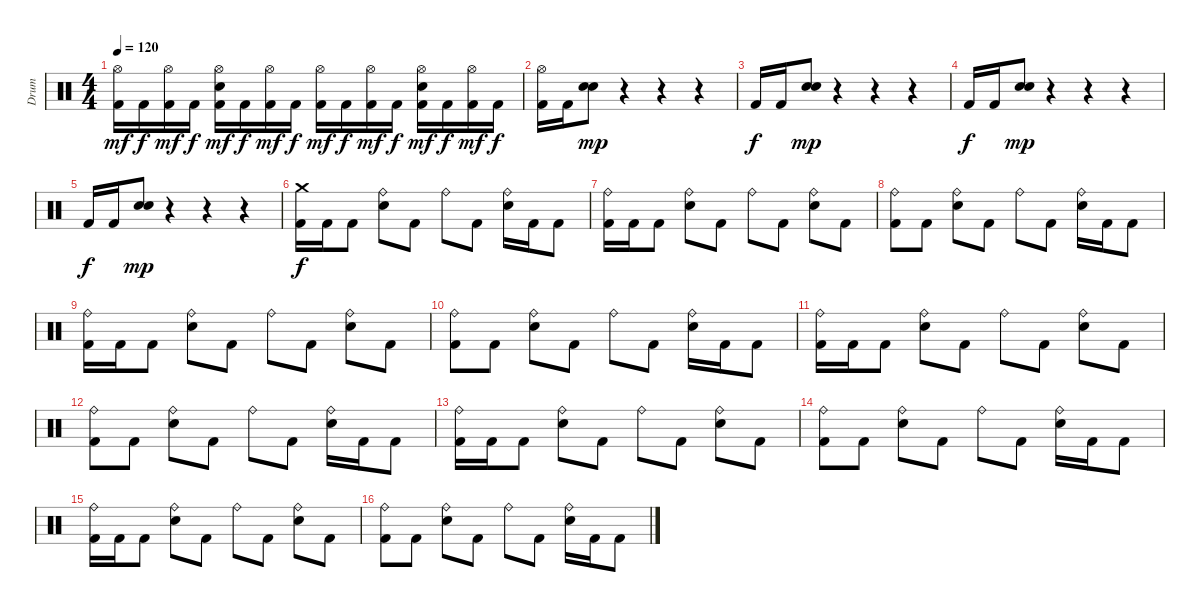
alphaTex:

\track ("Drum" "Drum") {instrument percussion}
\staff {score}
\articulation defaults
\ts (4 4)
\tempo 120
\clef neutral
\ks c
("Hi-Hat (open)" "Kick (hit) 2").16{dy mf} "Kick (hit) 2".16{dy f} ("Hi-Hat (open)" "Kick (hit) 2").16{dy mf} "Kick (hit) 2".16{dy f} ("Hi-Hat (open)" "Electric Snare (hit)" "Kick (hit) 2").16{dy mf} "Kick (hit) 2".16{dy f} ("Hi-Hat (open)" "Kick (hit) 2").16{dy mf} "Kick (hit) 2".16{dy f} ("Hi-Hat (open)" "Kick (hit) 2").16{dy mf} "Kick (hit) 2".16{dy f} ("Hi-Hat (open)" "Kick (hit) 2").16{dy mf} "Kick (hit) 2".16{dy f} ("Hi-Hat (open)" "Electric Snare (hit)" "Kick (hit) 2").16{dy mf} "Kick (hit) 2".16{dy f} ("Hi-Hat (open)" "Kick (hit) 2").16{dy mf} "Kick (hit) 2".16{dy f} |
("Hi-Hat (open)" "Kick (hit) 2").16 "Kick (hit) 2".16 ("Electric Snare (hit)" "Electric Snare (hit)").8{dy mp} r.4 r.4 r.4 |
"Kick (hit) 2".16{dy f} "Kick (hit) 2".16 ("Electric Snare (hit)" "Electric Snare (hit)").8{dy mp} r.4 r.4 r.4 |
"Kick (hit) 2".16{dy f} "Kick (hit) 2".16 ("Electric Snare (hit)" "Electric Snare (hit)").8{dy mp} r.4 r.4 r.4 |
"Kick (hit) 2".16{dy f} "Kick (hit) 2".16 ("Electric Snare (hit)" "Electric Snare (hit)").8{dy mp} r.4 r.4 r.4 |
("Crash medium (hit)" "Kick (hit) 2").16{dy f} "Kick (hit) 2".16 "Kick (hit) 2".8 ("Ride (bell)" "Electric Snare (hit)").8 "Kick (hit) 2".8 "Ride (bell)".8 "Kick (hit) 2".8 ("Ride (bell)" "Electric Snare (hit)").16 "Kick (hit) 2".16 "Kick (hit) 2".8 |
("Ride (bell)" "Kick (hit) 2").16 "Kick (hit) 2".16 "Kick (hit) 2".8 ("Ride (bell)" "Electric Snare (hit)").8 "Kick (hit) 2".8 "Ride (bell)".8 "Kick (hit) 2".8 ("Ride (bell)" "Electric Snare (hit)").8 "Kick (hit) 2".8 |
("Ride (bell)" "Kick (hit) 2").8 "Kick (hit) 2".8 ("Ride (bell)" "Electric Snare (hit)").8 "Kick (hit) 2".8 "Ride (bell)".8 "Kick (hit) 2".8 ("Ride (bell)" "Electric Snare (hit)").16 "Kick (hit) 2".16 "Kick (hit) 2".8 |
("Ride (bell)" "Kick (hit) 2").16 "Kick (hit) 2".16 "Kick (hit) 2".8 ("Ride (bell)" "Electric Snare (hit)").8 "Kick (hit) 2".8 "Ride (bell)".8 "Kick (hit) 2".8 ("Ride (bell)" "Electric Snare (hit)").8 "Kick (hit) 2".8 |
("Ride (bell)" "Kick (hit) 2").8 "Kick (hit) 2".8 ("Ride (bell)" "Electric Snare (hit)").8 "Kick (hit) 2".8 "Ride (bell)".8 "Kick (hit) 2".8 ("Ride (bell)" "Electric Snare (hit)").16 "Kick (hit) 2".16 "Kick (hit) 2".8 |
("Ride (bell)" "Kick (hit) 2").16 "Kick (hit) 2".16 "Kick (hit) 2".8 ("Ride (bell)" "Electric Snare (hit)").8 "Kick (hit) 2".8 "Ride (bell)".8 "Kick (hit) 2".8 ("Ride (bell)" "Electric Snare (hit)").8 "Kick (hit) 2".8 |
("Ride (bell)" "Kick (hit) 2").8 "Kick (hit) 2".8 ("Ride (bell)" "Electric Snare (hit)").8 "Kick (hit) 2".8 "Ride (bell)".8 "Kick (hit) 2".8 ("Ride (bell)" "Electric Snare (hit)").16 "Kick (hit) 2".16 "Kick (hit) 2".8 |
("Ride (bell)" "Kick (hit) 2").16 "Kick (hit) 2".16 "Kick (hit) 2".8 ("Ride (bell)" "Electric Snare (hit)").8 "Kick (hit) 2".8 "Ride (bell)".8 "Kick (hit) 2".8 ("Ride (bell)" "Electric Snare (hit)").8 "Kick (hit) 2".8 |
("Ride (bell)" "Kick (hit) 2").8 "Kick (hit) 2".8 ("Ride (bell)" "Electric Snare (hit)").8 "Kick (hit) 2".8 "Ride (bell)".8 "Kick (hit) 2".8 ("Ride (bell)" "Electric Snare (hit)").16 "Kick (hit) 2".16 "Kick (hit) 2".8 |
("Ride (bell)" "Kick (hit) 2").16 "Kick (hit) 2".16 "Kick (hit) 2".8 ("Ride (bell)" "Electric Snare (hit)").8 "Kick (hit) 2".8 "Ride (bell)".8 "Kick (hit) 2".8 ("Ride (bell)" "Electric Snare (hit)").8 "Kick (hit) 2".8 |
("Ride (bell)" "Kick (hit) 2").8 "Kick (hit) 2".8 ("Ride (bell)" "Electric Snare (hit)").8 "Kick (hit) 2".8 "Ride (bell)".8 "Kick (hit) 2".8 ("Ride (bell)" "Electric Snare (hit)").16 "Kick (hit) 2".16 "Kick (hit) 2".8
